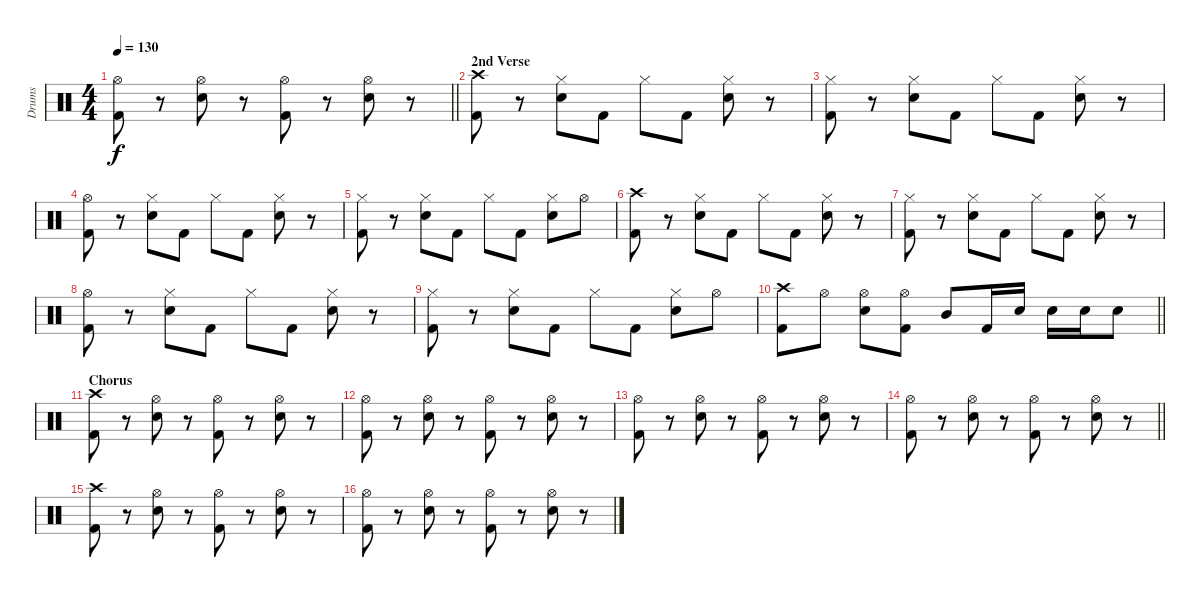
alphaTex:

\track ("Drums" "Drums") {instrument percussion}
\staff {score}
\articulation defaults
\ts (4 4)
\tempo 130
\clef neutral
\barLineRight lightlight
\ks c
("Hi-Hat (open)" "Kick (hit) 2").8{dy f} r.8 ("Hi-Hat (open)" "Snare (hit) 2").8 r.8 ("Hi-Hat (open)" "Kick (hit) 2").8 r.8 ("Hi-Hat (open)" "Snare (hit) 2").8 r.8 |
\section ("" "2nd Verse")
("Crash high (hit)" "Kick (hit) 2").8 r.8 ("Hi-Hat (closed)" "Snare (hit) 2").8 "Kick (hit) 2".8 "Hi-Hat (closed)".8 "Kick (hit) 2".8 ("Hi-Hat (closed)" "Snare (hit) 2").8 r.8 |
("Hi-Hat (closed)" "Kick (hit) 2").8 r.8 ("Hi-Hat (closed)" "Snare (hit) 2").8 "Kick (hit) 2".8 "Hi-Hat (closed)".8 "Kick (hit) 2".8 ("Hi-Hat (closed)" "Snare (hit) 2").8 r.8 |
("Hi-Hat (open)" "Kick (hit) 2").8 r.8 ("Hi-Hat (closed)" "Snare (hit) 2").8 "Kick (hit) 2".8 "Hi-Hat (closed)".8 "Kick (hit) 2".8 ("Hi-Hat (closed)" "Snare (hit) 2").8 r.8 |
("Hi-Hat (closed)" "Kick (hit) 2").8 r.8 ("Hi-Hat (closed)" "Snare (hit) 2").8 "Kick (hit) 2".8 "Hi-Hat (closed)".8 "Kick (hit) 2".8 ("Hi-Hat (closed)" "Snare (hit) 2").8 "Hi-Hat (open)".8 |
("Crash high (hit)" "Kick (hit) 2").8 r.8 ("Hi-Hat (closed)" "Snare (hit) 2").8 "Kick (hit) 2".8 "Hi-Hat (closed)".8 "Kick (hit) 2".8 ("Hi-Hat (closed)" "Snare (hit) 2").8 r.8 |
("Hi-Hat (closed)" "Kick (hit) 2").8 r.8 ("Hi-Hat (closed)" "Snare (hit) 2").8 "Kick (hit) 2".8 "Hi-Hat (closed)".8 "Kick (hit) 2".8 ("Hi-Hat (closed)" "Snare (hit) 2").8 r.8 |
("Hi-Hat (open)" "Kick (hit) 2").8 r.8 ("Hi-Hat (closed)" "Snare (hit) 2").8 "Kick (hit) 2".8 "Hi-Hat (closed)".8 "Kick (hit) 2".8 ("Hi-Hat (closed)" "Snare (hit) 2").8 r.8 |
("Hi-Hat (closed)" "Kick (hit) 2").8 r.8 ("Hi-Hat (closed)" "Snare (hit) 2").8 "Kick (hit) 2".8 "Hi-Hat (closed)".8 "Kick (hit) 2".8 ("Hi-Hat (closed)" "Snare (hit) 2").8 "Hi-Hat (open)".8 |
\barLineRight lightlight
("Crash high (hit)" "Kick (hit) 2").8 "Hi-Hat (open)".8 ("Hi-Hat (open)" "Snare (hit) 2").8 ("Hi-Hat (open)" "Kick (hit) 2").8 "Mid Tom (hit)".8 "Kick (hit) 2".16 "Snare (hit) 2".16 "Snare (hit) 2".16 "Snare (hit) 2".16 "Snare (hit) 2".8 |
\section ("" "Chorus")
("Crash high (hit)" "Kick (hit) 2").8 r.8 ("Hi-Hat (open)" "Snare (hit) 2").8 r.8 ("Hi-Hat (open)" "Kick (hit) 2").8 r.8 ("Hi-Hat (open)" "Snare (hit) 2").8 r.8 |
("Hi-Hat (open)" "Kick (hit) 2").8 r.8 ("Hi-Hat (open)" "Snare (hit) 2").8 r.8 ("Hi-Hat (open)" "Kick (hit) 2").8 r.8 ("Hi-Hat (open)" "Snare (hit) 2").8 r.8 |
("Hi-Hat (open)" "Kick (hit) 2").8 r.8 ("Hi-Hat (open)" "Snare (hit) 2").8 r.8 ("Hi-Hat (open)" "Kick (hit) 2").8 r.8 ("Hi-Hat (open)" "Snare (hit) 2").8 r.8 |
\barLineRight lightlight
("Hi-Hat (open)" "Kick (hit) 2").8 r.8 ("Hi-Hat (open)" "Snare (hit) 2").8 r.8 ("Hi-Hat (open)" "Kick (hit) 2").8 r.8 ("Hi-Hat (open)" "Snare (hit) 2").8 r.8 |
("Crash high (hit)" "Kick (hit) 2").8 r.8 ("Hi-Hat (open)" "Snare (hit) 2").8 r.8 ("Hi-Hat (open)" "Kick (hit) 2").8 r.8 ("Hi-Hat (open)" "Snare (hit) 2").8 r.8 |
("Hi-Hat (open)" "Kick (hit) 2").8 r.8 ("Hi-Hat (open)" "Snare (hit) 2").8 r.8 ("Hi-Hat (open)" "Kick (hit) 2").8 r.8 ("Hi-Hat (open)" "Snare (hit) 2").8 r.8
